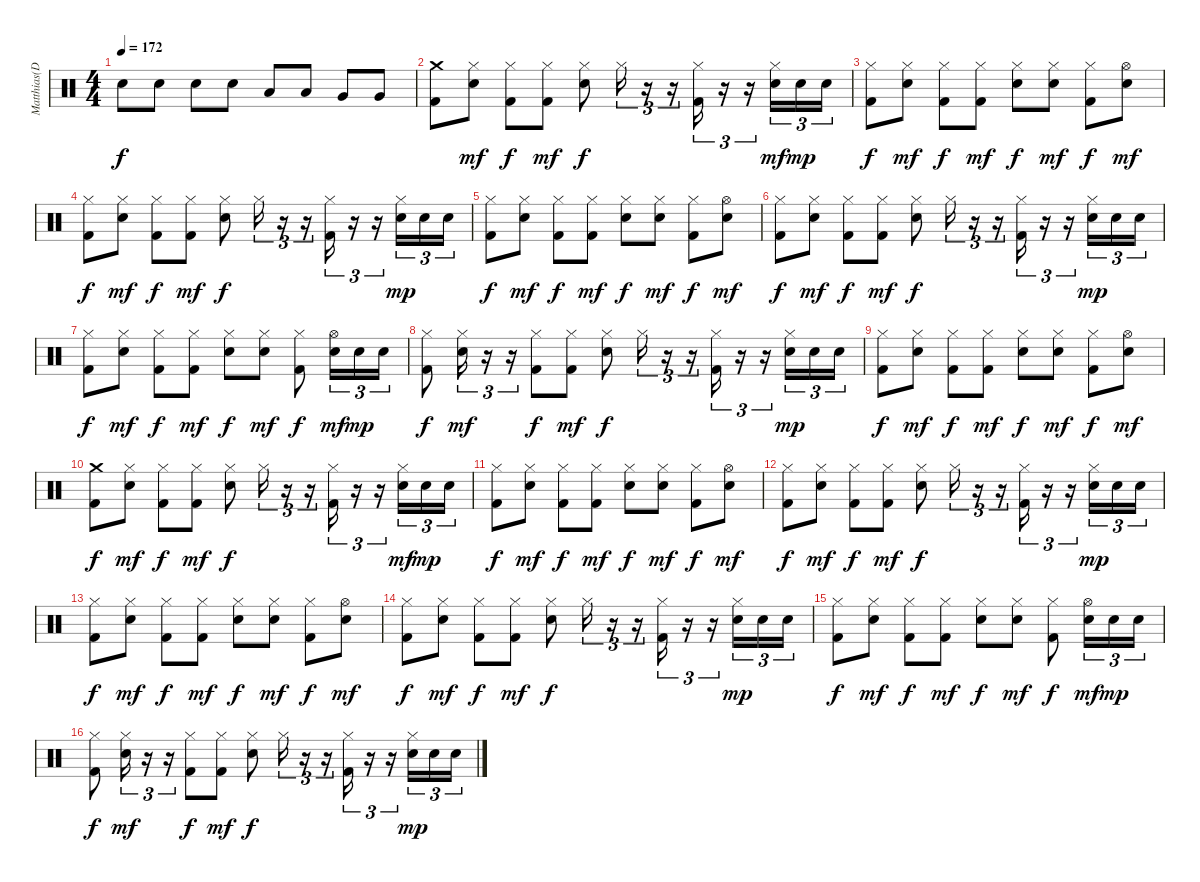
\track ("Matthias(Drums)" "Matthias(D") {instrument percussion}
\staff {score}
\articulation defaults
\ts (4 4)
\tempo 172
\clef neutral
\ks c "Snare (hit) 2".8{dy f} "Snare (hit) 2".8 "Snare (hit) 2".8 "Snare (hit) 2".8 "Low Tom (hit)".8 "Low Tom (hit)".8 "Very Low Tom (hit)".8 "Very Low Tom (hit)".8
|
("Crash medium (hit)" "Kick (hit) 2").8 ("Hi-Hat (closed)" "Snare (hit) 2").8{dy mf} ("Hi-Hat (closed)" "Kick (hit) 2").8{dy f} ("Hi-Hat (closed)" "Kick (hit) 2").8{dy mf} ("Hi-Hat (closed)" "Snare (hit) 2").8{dy f} "Hi-Hat (closed)".16{tu (3 2)} r.16{tu (3 2)} r.16{tu (3 2)} ("Hi-Hat (closed)" "Kick (hit) 2").16{tu (3 2)} r.16{tu (3 2)} r.16{tu (3 2)} ("Hi-Hat (closed)" "Snare (hit) 2").16{tu (3 2) dy mf} "Snare (hit) 2".16{tu (3 2) dy mp} "Snare (hit) 2".16{tu (3 2)} |
("Hi-Hat (closed)" "Kick (hit) 2").8{dy f} ("Hi-Hat (closed)" "Snare (hit) 2").8{dy mf} ("Hi-Hat (closed)" "Kick (hit) 2").8{dy f} ("Hi-Hat (closed)" "Kick (hit) 2").8{dy mf} ("Hi-Hat (closed)" "Snare (hit) 2").8{dy f} ("Hi-Hat (closed)" "Snare (hit) 2").8{dy mf} ("Hi-Hat (closed)" "Kick (hit) 2").8{dy f} ("Hi-Hat (open)" "Snare (hit) 2").8{dy mf} |
("Hi-Hat (closed)" "Kick (hit) 2").8{dy f} ("Hi-Hat (closed)" "Snare (hit) 2").8{dy mf} ("Hi-Hat (closed)" "Kick (hit) 2").8{dy f} ("Hi-Hat (closed)" "Kick (hit) 2").8{dy mf} ("Hi-Hat (closed)" "Snare (hit) 2").8{dy f} "Hi-Hat (closed)".16{tu (3 2)} r.16{tu (3 2)} r.16{tu (3 2)} ("Hi-Hat (closed)" "Kick (hit) 2").16{tu (3 2)} r.16{tu (3 2)} r.16{tu (3 2)} ("Hi-Hat (closed)" "Snare (hit) 2").16{tu (3 2) dy mp} "Snare (hit) 2".16{tu (3 2)} "Snare (hit) 2".16{tu (3 2)} |
("Hi-Hat (closed)" "Kick (hit) 2").8{dy f} ("Hi-Hat (closed)" "Snare (hit) 2").8{dy mf} ("Hi-Hat (closed)" "Kick (hit) 2").8{dy f} ("Hi-Hat (closed)" "Kick (hit) 2").8{dy mf} ("Hi-Hat (closed)" "Snare (hit) 2").8{dy f} ("Hi-Hat (closed)" "Snare (hit) 2").8{dy mf} ("Hi-Hat (closed)" "Kick (hit) 2").8{dy f} ("Hi-Hat (open)" "Snare (hit) 2").8{dy mf} |
("Hi-Hat (closed)" "Kick (hit) 2").8{dy f} ("Hi-Hat (closed)" "Snare (hit) 2").8{dy mf} ("Hi-Hat (closed)" "Kick (hit) 2").8{dy f} ("Hi-Hat (closed)" "Kick (hit) 2").8{dy mf} ("Hi-Hat (closed)" "Snare (hit) 2").8{dy f} "Hi-Hat (closed)".16{tu (3 2)} r.16{tu (3 2)} r.16{tu (3 2)} ("Hi-Hat (closed)" "Kick (hit) 2").16{tu (3 2)} r.16{tu (3 2)} r.16{tu (3 2)} ("Hi-Hat (closed)" "Snare (hit) 2").16{tu (3 2) dy mp} "Snare (hit) 2".16{tu (3 2)} "Snare (hit) 2".16{tu (3 2)} |
("Hi-Hat (closed)" "Kick (hit) 2").8{dy f} ("Hi-Hat (closed)" "Snare (hit) 2").8{dy mf} ("Hi-Hat (closed)" "Kick (hit) 2").8{dy f} ("Hi-Hat (closed)" "Kick (hit) 2").8{dy mf} ("Hi-Hat (closed)" "Snare (hit) 2").8{dy f} ("Hi-Hat (closed)" "Snare (hit) 2").8{dy mf} ("Hi-Hat (closed)" "Kick (hit) 2").8{dy f} ("Hi-Hat (open)" "Snare (hit) 2").16{tu (3 2) dy mf} "Snare (hit) 2".16{tu (3 2) dy mp} "Snare (hit) 2".16{tu (3 2)} |
("Hi-Hat (closed)" "Kick (hit) 2").8{dy f} ("Hi-Hat (closed)" "Snare (hit) 2").16{tu (3 2) dy mf} r.16{tu (3 2)} r.16{tu (3 2)} ("Hi-Hat (closed)" "Kick (hit) 2").8{dy f} ("Hi-Hat (closed)" "Kick (hit) 2").8{dy mf} ("Hi-Hat (closed)" "Snare (hit) 2").8{dy f} "Hi-Hat (closed)".16{tu (3 2)} r.16{tu (3 2)} r.16{tu (3 2)} ("Hi-Hat (closed)" "Kick (hit) 2").16{tu (3 2)} r.16{tu (3 2)} r.16{tu (3 2)} ("Hi-Hat (closed)" "Snare (hit) 2").16{tu (3 2) dy mp} "Snare (hit) 2".16{tu (3 2)} "Snare (hit) 2".16{tu (3 2)} |
("Hi-Hat (closed)" "Kick (hit) 2").8{dy f} ("Hi-Hat (closed)" "Snare (hit) 2").8{dy mf} ("Hi-Hat (closed)" "Kick (hit) 2").8{dy f} ("Hi-Hat (closed)" "Kick (hit) 2").8{dy mf} ("Hi-Hat (closed)" "Snare (hit) 2").8{dy f} ("Hi-Hat (closed)" "Snare (hit) 2").8{dy mf} ("Hi-Hat (closed)" "Kick (hit) 2").8{dy f} ("Hi-Hat (open)" "Snare (hit) 2").8{dy mf} |
("Crash medium (hit)" "Kick (hit) 2").8{dy f} ("Hi-Hat (closed)" "Snare (hit) 2").8{dy mf} ("Hi-Hat (closed)" "Kick (hit) 2").8{dy f} ("Hi-Hat (closed)" "Kick (hit) 2").8{dy mf} ("Hi-Hat (closed)" "Snare (hit) 2").8{dy f} "Hi-Hat (closed)".16{tu (3 2)} r.16{tu (3 2)} r.16{tu (3 2)} ("Hi-Hat (closed)" "Kick (hit) 2").16{tu (3 2)} r.16{tu (3 2)} r.16{tu (3 2)} ("Hi-Hat (closed)" "Snare (hit) 2").16{tu (3 2) dy mf} "Snare (hit) 2".16{tu (3 2) dy mp} "Snare (hit) 2".16{tu (3 2)} |
("Hi-Hat (closed)" "Kick (hit) 2").8{dy f} ("Hi-Hat (closed)" "Snare (hit) 2").8{dy mf} ("Hi-Hat (closed)" "Kick (hit) 2").8{dy f} ("Hi-Hat (closed)" "Kick (hit) 2").8{dy mf} ("Hi-Hat (closed)" "Snare (hit) 2").8{dy f} ("Hi-Hat (closed)" "Snare (hit) 2").8{dy mf} ("Hi-Hat (closed)" "Kick (hit) 2").8{dy f} ("Hi-Hat (open)" "Snare (hit) 2").8{dy mf} |
("Hi-Hat (closed)" "Kick (hit) 2").8{dy f} ("Hi-Hat (closed)" "Snare (hit) 2").8{dy mf} ("Hi-Hat (closed)" "Kick (hit) 2").8{dy f} ("Hi-Hat (closed)" "Kick (hit) 2").8{dy mf} ("Hi-Hat (closed)" "Snare (hit) 2").8{dy f} "Hi-Hat (closed)".16{tu (3 2)} r.16{tu (3 2)} r.16{tu (3 2)} ("Hi-Hat (closed)" "Kick (hit) 2").16{tu (3 2)} r.16{tu (3 2)} r.16{tu (3 2)} ("Hi-Hat (closed)" "Snare (hit) 2").16{tu (3 2) dy mp} "Snare (hit) 2".16{tu (3 2)} "Snare (hit) 2".16{tu (3 2)} |
("Hi-Hat (closed)" "Kick (hit) 2").8{dy f} ("Hi-Hat (closed)" "Snare (hit) 2").8{dy mf} ("Hi-Hat (closed)" "Kick (hit) 2").8{dy f} ("Hi-Hat (closed)" "Kick (hit) 2").8{dy mf} ("Hi-Hat (closed)" "Snare (hit) 2").8{dy f} ("Hi-Hat (closed)" "Snare (hit) 2").8{dy mf} ("Hi-Hat (closed)" "Kick (hit) 2").8{dy f} ("Hi-Hat (open)" "Snare (hit) 2").8{dy mf} |
("Hi-Hat (closed)" "Kick (hit) 2").8{dy f} ("Hi-Hat (closed)" "Snare (hit) 2").8{dy mf} ("Hi-Hat (closed)" "Kick (hit) 2").8{dy f} ("Hi-Hat (closed)" "Kick (hit) 2").8{dy mf} ("Hi-Hat (closed)" "Snare (hit) 2").8{dy f} "Hi-Hat (closed)".16{tu (3 2)} r.16{tu (3 2)} r.16{tu (3 2)} ("Hi-Hat (closed)" "Kick (hit) 2").16{tu (3 2)} r.16{tu (3 2)} r.16{tu (3 2)} ("Hi-Hat (closed)" "Snare (hit) 2").16{tu (3 2) dy mp} "Snare (hit) 2".16{tu (3 2)} "Snare (hit) 2".16{tu (3 2)} |
("Hi-Hat (closed)" "Kick (hit) 2").8{dy f} ("Hi-Hat (closed)" "Snare (hit) 2").8{dy mf} ("Hi-Hat (closed)" "Kick (hit) 2").8{dy f} ("Hi-Hat (closed)" "Kick (hit) 2").8{dy mf} ("Hi-Hat (closed)" "Snare (hit) 2").8{dy f} ("Hi-Hat (closed)" "Snare (hit) 2").8{dy mf} ("Hi-Hat (closed)" "Kick (hit) 2").8{dy f} ("Hi-Hat (open)" "Snare (hit) 2").16{tu (3 2) dy mf} "Snare (hit) 2".16{tu (3 2) dy mp} "Snare (hit) 2".16{tu (3 2)} |
("Hi-Hat (closed)" "Kick (hit) 2").8{dy f} ("Hi-Hat (closed)" "Snare (hit) 2").16{tu (3 2) dy mf} r.16{tu (3 2)} r.16{tu (3 2)} ("Hi-Hat (closed)" "Kick (hit) 2").8{dy f} ("Hi-Hat (closed)" "Kick (hit) 2").8{dy mf} ("Hi-Hat (closed)" "Snare (hit) 2").8{dy f} "Hi-Hat (closed)".16{tu (3 2)} r.16{tu (3 2)} r.16{tu (3 2)} ("Hi-Hat (closed)" "Kick (hit) 2").16{tu (3 2)} r.16{tu (3 2)} r.16{tu (3 2)} ("Hi-Hat (closed)" "Snare (hit) 2").16{tu (3 2) dy mp} "Snare (hit) 2".16{tu (3 2)} "Snare (hit) 2".16{tu (3 2)}
